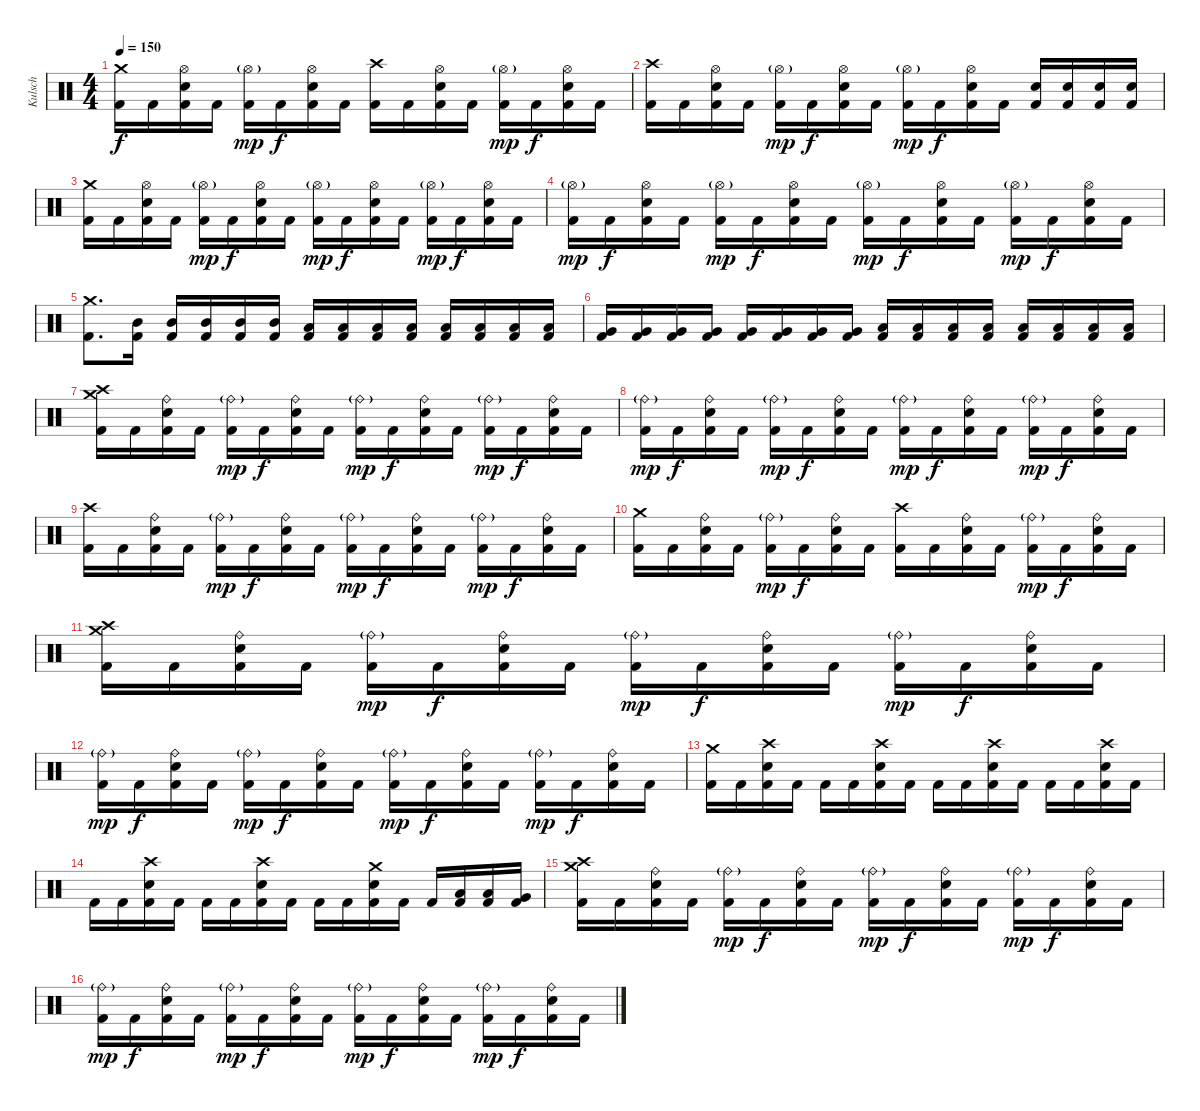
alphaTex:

\track ("Kulsch" "Kulsch") {instrument percussion}
\staff {score}
\articulation defaults
\ts (4 4)
\tempo 150
\clef neutral
\ks c
("Crash medium (hit)" "Kick (hit) 2").16{dy f} "Kick (hit) 2".16 ("Hi-Hat (open)" "Snare (hit) 2" "Kick (hit) 2").16 "Kick (hit) 2".16 ("Hi-Hat (open)"{g} "Kick (hit) 2").16{dy mp} "Kick (hit) 2".16{dy f} ("Hi-Hat (open)" "Snare (hit) 2" "Kick (hit) 2").16 "Kick (hit) 2".16 ("Crash high (hit)" "Kick (hit) 2").16 "Kick (hit) 2".16 ("Hi-Hat (open)" "Snare (hit) 2" "Kick (hit) 2").16 "Kick (hit) 2".16 ("Hi-Hat (open)"{g} "Kick (hit) 2").16{dy mp} "Kick (hit) 2".16{dy f} ("Hi-Hat (open)" "Snare (hit) 2" "Kick (hit) 2").16 "Kick (hit) 2".16 |
("Crash high (hit)" "Kick (hit) 2").16 "Kick (hit) 2".16 ("Hi-Hat (open)" "Snare (hit) 2" "Kick (hit) 2").16 "Kick (hit) 2".16 ("Hi-Hat (open)"{g} "Kick (hit) 2").16{dy mp} "Kick (hit) 2".16{dy f} ("Hi-Hat (open)" "Snare (hit) 2" "Kick (hit) 2").16 "Kick (hit) 2".16 ("Hi-Hat (open)"{g} "Kick (hit) 2").16{dy mp} "Kick (hit) 2".16{dy f} ("Hi-Hat (open)" "Snare (hit) 2" "Kick (hit) 2").16 "Kick (hit) 2".16 ("Snare (hit) 2" "Kick (hit) 2").16 ("Snare (hit) 2" "Kick (hit) 2").16 ("Snare (hit) 2" "Kick (hit) 2").16 ("Snare (hit) 2" "Kick (hit) 2").16 |
("Crash medium (hit)" "Kick (hit) 2").16 "Kick (hit) 2".16 ("Hi-Hat (open)" "Snare (hit) 2" "Kick (hit) 2").16 "Kick (hit) 2".16 ("Hi-Hat (open)"{g} "Kick (hit) 2").16{dy mp} "Kick (hit) 2".16{dy f} ("Hi-Hat (open)" "Snare (hit) 2" "Kick (hit) 2").16 "Kick (hit) 2".16 ("Hi-Hat (open)"{g} "Kick (hit) 2").16{dy mp} "Kick (hit) 2".16{dy f} ("Hi-Hat (open)" "Snare (hit) 2" "Kick (hit) 2").16 "Kick (hit) 2".16 ("Hi-Hat (open)"{g} "Kick (hit) 2").16{dy mp} "Kick (hit) 2".16{dy f} ("Hi-Hat (open)" "Snare (hit) 2" "Kick (hit) 2").16 "Kick (hit) 2".16 |
("Hi-Hat (open)"{g} "Kick (hit) 2").16{dy mp} "Kick (hit) 2".16{dy f} ("Hi-Hat (open)" "Snare (hit) 2" "Kick (hit) 2").16 "Kick (hit) 2".16 ("Hi-Hat (open)"{g} "Kick (hit) 2").16{dy mp} "Kick (hit) 2".16{dy f} ("Hi-Hat (open)" "Snare (hit) 2" "Kick (hit) 2").16 "Kick (hit) 2".16 ("Hi-Hat (open)"{g} "Kick (hit) 2").16{dy mp} "Kick (hit) 2".16{dy f} ("Hi-Hat (open)" "Snare (hit) 2" "Kick (hit) 2").16 "Kick (hit) 2".16 ("Hi-Hat (open)"{g} "Kick (hit) 2").16{dy mp} "Kick (hit) 2".16{dy f} ("Hi-Hat (open)" "Snare (hit) 2" "Kick (hit) 2").16 "Kick (hit) 2".16 |
("Crash medium (hit)" "Kick (hit) 2").8{d} ("Mid Tom (hit)" "Kick (hit) 2").16 ("Mid Tom (hit)" "Kick (hit) 2").16 ("Mid Tom (hit)" "Kick (hit) 2").16 ("Mid Tom (hit)" "Kick (hit) 2").16 ("Mid Tom (hit)" "Kick (hit) 2").16 ("Low Tom (hit)" "Kick (hit) 2").16 ("Low Tom (hit)" "Kick (hit) 2").16 ("Low Tom (hit)" "Kick (hit) 2").16 ("Low Tom (hit)" "Kick (hit) 2").16 ("Low Tom (hit)" "Kick (hit) 2").16 ("Low Tom (hit)" "Kick (hit) 2").16 ("Low Tom (hit)" "Kick (hit) 2").16 ("Low Tom (hit)" "Kick (hit) 2").16 |
("Very Low Tom (hit)" "Kick (hit) 2").16 ("Very Low Tom (hit)" "Kick (hit) 2").16 ("Very Low Tom (hit)" "Kick (hit) 2").16 ("Very Low Tom (hit)" "Kick (hit) 2").16 ("Very Low Tom (hit)" "Kick (hit) 2").16 ("Very Low Tom (hit)" "Kick (hit) 2").16 ("Very Low Tom (hit)" "Kick (hit) 2").16 ("Very Low Tom (hit)" "Kick (hit) 2").16 ("Low Floor Tom (hit)" "Kick (hit) 2").16 ("Low Floor Tom (hit)" "Kick (hit) 2").16 ("Low Floor Tom (hit)" "Kick (hit) 2").16 ("Low Floor Tom (hit)" "Kick (hit) 2").16 ("Low Floor Tom (hit)" "Kick (hit) 2").16 ("Low Floor Tom (hit)" "Kick (hit) 2").16 ("Low Floor Tom (hit)" "Kick (hit) 2").16 ("Low Floor Tom (hit)" "Kick (hit) 2").16 |
("Crash medium (hit)" "Crash high (hit)" "Kick (hit) 2").16 "Kick (hit) 2".16 ("Ride (bell)" "Snare (hit) 2" "Kick (hit) 2").16 "Kick (hit) 2".16 ("Ride (bell)"{g} "Kick (hit) 2").16{dy mp} "Kick (hit) 2".16{dy f} ("Ride (bell)" "Snare (hit) 2" "Kick (hit) 2").16 "Kick (hit) 2".16 ("Ride (bell)"{g} "Kick (hit) 2").16{dy mp} "Kick (hit) 2".16{dy f} ("Ride (bell)" "Snare (hit) 2" "Kick (hit) 2").16 "Kick (hit) 2".16 ("Ride (bell)"{g} "Kick (hit) 2").16{dy mp} "Kick (hit) 2".16{dy f} ("Ride (bell)" "Snare (hit) 2" "Kick (hit) 2").16 "Kick (hit) 2".16 |
("Ride (bell)"{g} "Kick (hit) 2").16{dy mp} "Kick (hit) 2".16{dy f} ("Ride (bell)" "Snare (hit) 2" "Kick (hit) 2").16 "Kick (hit) 2".16 ("Ride (bell)"{g} "Kick (hit) 2").16{dy mp} "Kick (hit) 2".16{dy f} ("Ride (bell)" "Snare (hit) 2" "Kick (hit) 2").16 "Kick (hit) 2".16 ("Ride (bell)"{g} "Kick (hit) 2").16{dy mp} "Kick (hit) 2".16{dy f} ("Ride (bell)" "Snare (hit) 2" "Kick (hit) 2").16 "Kick (hit) 2".16 ("Ride (bell)"{g} "Kick (hit) 2").16{dy mp} "Kick (hit) 2".16{dy f} ("Ride (bell)" "Snare (hit) 2" "Kick (hit) 2").16 "Kick (hit) 2".16 |
("Crash high (hit)" "Kick (hit) 2").16 "Kick (hit) 2".16 ("Ride (bell)" "Snare (hit) 2" "Kick (hit) 2").16 "Kick (hit) 2".16 ("Ride (bell)"{g} "Kick (hit) 2").16{dy mp} "Kick (hit) 2".16{dy f} ("Ride (bell)" "Snare (hit) 2" "Kick (hit) 2").16 "Kick (hit) 2".16 ("Ride (bell)"{g} "Kick (hit) 2").16{dy mp} "Kick (hit) 2".16{dy f} ("Ride (bell)" "Snare (hit) 2" "Kick (hit) 2").16 "Kick (hit) 2".16 ("Ride (bell)"{g} "Kick (hit) 2").16{dy mp} "Kick (hit) 2".16{dy f} ("Ride (bell)" "Snare (hit) 2" "Kick (hit) 2").16 "Kick (hit) 2".16 |
("Crash medium (hit)" "Kick (hit) 2").16 "Kick (hit) 2".16 ("Ride (bell)" "Snare (hit) 2" "Kick (hit) 2").16 "Kick (hit) 2".16 ("Ride (bell)"{g} "Kick (hit) 2").16{dy mp} "Kick (hit) 2".16{dy f} ("Ride (bell)" "Snare (hit) 2" "Kick (hit) 2").16 "Kick (hit) 2".16 ("Crash high (hit)" "Kick (hit) 2").16 "Kick (hit) 2".16 ("Ride (bell)" "Snare (hit) 2" "Kick (hit) 2").16 "Kick (hit) 2".16 ("Ride (bell)"{g} "Kick (hit) 2").16{dy mp} "Kick (hit) 2".16{dy f} ("Ride (bell)" "Snare (hit) 2" "Kick (hit) 2").16 "Kick (hit) 2".16 |
("Crash medium (hit)" "Crash high (hit)" "Kick (hit) 2").16 "Kick (hit) 2".16 ("Ride (bell)" "Snare (hit) 2" "Kick (hit) 2").16 "Kick (hit) 2".16 ("Ride (bell)"{g} "Kick (hit) 2").16{dy mp} "Kick (hit) 2".16{dy f} ("Ride (bell)" "Snare (hit) 2" "Kick (hit) 2").16 "Kick (hit) 2".16 ("Ride (bell)"{g} "Kick (hit) 2").16{dy mp} "Kick (hit) 2".16{dy f} ("Ride (bell)" "Snare (hit) 2" "Kick (hit) 2").16 "Kick (hit) 2".16 ("Ride (bell)"{g} "Kick (hit) 2").16{dy mp} "Kick (hit) 2".16{dy f} ("Ride (bell)" "Snare (hit) 2" "Kick (hit) 2").16 "Kick (hit) 2".16 |
("Ride (bell)"{g} "Kick (hit) 2").16{dy mp} "Kick (hit) 2".16{dy f} ("Ride (bell)" "Snare (hit) 2" "Kick (hit) 2").16 "Kick (hit) 2".16 ("Ride (bell)"{g} "Kick (hit) 2").16{dy mp} "Kick (hit) 2".16{dy f} ("Ride (bell)" "Snare (hit) 2" "Kick (hit) 2").16 "Kick (hit) 2".16 ("Ride (bell)"{g} "Kick (hit) 2").16{dy mp} "Kick (hit) 2".16{dy f} ("Ride (bell)" "Snare (hit) 2" "Kick (hit) 2").16 "Kick (hit) 2".16 ("Ride (bell)"{g} "Kick (hit) 2").16{dy mp} "Kick (hit) 2".16{dy f} ("Ride (bell)" "Snare (hit) 2" "Kick (hit) 2").16 "Kick (hit) 2".16 |
("Crash medium (hit)" "Kick (hit) 2").16 "Kick (hit) 2".16 ("Crash high (hit)" "Snare (hit) 2" "Kick (hit) 2").16 "Kick (hit) 2".16 "Kick (hit) 2".16 "Kick (hit) 2".16 ("Crash high (hit)" "Snare (hit) 2" "Kick (hit) 2").16 "Kick (hit) 2".16 "Kick (hit) 2".16 "Kick (hit) 2".16 ("Crash high (hit)" "Snare (hit) 2" "Kick (hit) 2").16 "Kick (hit) 2".16 "Kick (hit) 2".16 "Kick (hit) 2".16 ("Crash high (hit)" "Snare (hit) 2" "Kick (hit) 2").16 "Kick (hit) 2".16 |
"Kick (hit) 2".16 "Kick (hit) 2".16 ("Crash high (hit)" "Snare (hit) 2" "Kick (hit) 2").16 "Kick (hit) 2".16 "Kick (hit) 2".16 "Kick (hit) 2".16 ("Crash high (hit)" "Snare (hit) 2" "Kick (hit) 2").16 "Kick (hit) 2".16 "Kick (hit) 2".16 "Kick (hit) 2".16 ("Crash medium (hit)" "Snare (hit) 2" "Kick (hit) 2").16 "Kick (hit) 2".16 "Kick (hit) 2".16 ("Low Tom (hit)" "Kick (hit) 2").16 ("Low Tom (hit)" "Kick (hit) 2").16 ("Very Low Tom (hit)" "Kick (hit) 2").16 |
("Crash medium (hit)" "Crash high (hit)" "Kick (hit) 2").16 "Kick (hit) 2".16 ("Ride (bell)" "Snare (hit) 2" "Kick (hit) 2").16 "Kick (hit) 2".16 ("Ride (bell)"{g} "Kick (hit) 2").16{dy mp} "Kick (hit) 2".16{dy f} ("Ride (bell)" "Snare (hit) 2" "Kick (hit) 2").16 "Kick (hit) 2".16 ("Ride (bell)"{g} "Kick (hit) 2").16{dy mp} "Kick (hit) 2".16{dy f} ("Ride (bell)" "Snare (hit) 2" "Kick (hit) 2").16 "Kick (hit) 2".16 ("Ride (bell)"{g} "Kick (hit) 2").16{dy mp} "Kick (hit) 2".16{dy f} ("Ride (bell)" "Snare (hit) 2" "Kick (hit) 2").16 "Kick (hit) 2".16 |
("Ride (bell)"{g} "Kick (hit) 2").16{dy mp} "Kick (hit) 2".16{dy f} ("Ride (bell)" "Snare (hit) 2" "Kick (hit) 2").16 "Kick (hit) 2".16 ("Ride (bell)"{g} "Kick (hit) 2").16{dy mp} "Kick (hit) 2".16{dy f} ("Ride (bell)" "Snare (hit) 2" "Kick (hit) 2").16 "Kick (hit) 2".16 ("Ride (bell)"{g} "Kick (hit) 2").16{dy mp} "Kick (hit) 2".16{dy f} ("Ride (bell)" "Snare (hit) 2" "Kick (hit) 2").16 "Kick (hit) 2".16 ("Ride (bell)"{g} "Kick (hit) 2").16{dy mp} "Kick (hit) 2".16{dy f} ("Ride (bell)" "Snare (hit) 2" "Kick (hit) 2").16 "Kick (hit) 2".16
